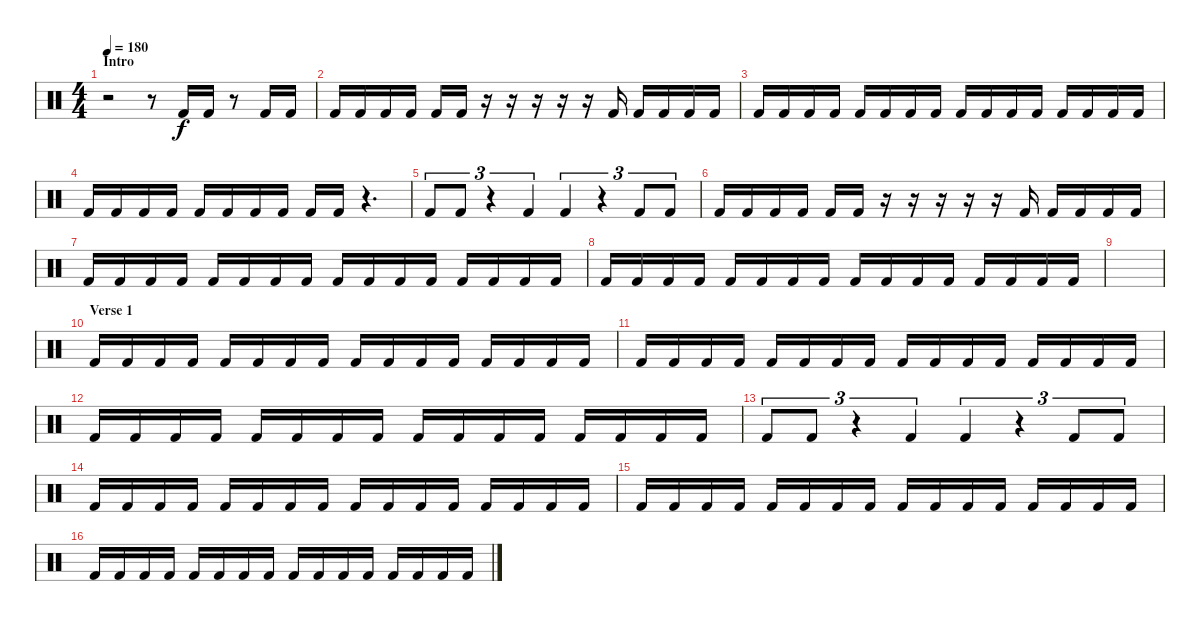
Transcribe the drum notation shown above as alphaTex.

\track "" {instrument percussion}
\staff {score}
\articulation defaults
\ts (4 4)
\section ("" "Intro")
\tempo 180
\clef neutral
\ks c
r.2{dy f} r.8 "Kick (hit) 2".16 "Kick (hit) 2".16 r.8 "Kick (hit) 2".16 "Kick (hit) 2".16 |
"Kick (hit) 2".16 "Kick (hit) 2".16 "Kick (hit) 2".16 "Kick (hit) 2".16 "Kick (hit) 2".16 "Kick (hit) 2".16 r.16 r.16 r.16 r.16 r.16 "Kick (hit) 2".16 "Kick (hit) 2".16 "Kick (hit) 2".16 "Kick (hit) 2".16 "Kick (hit) 2".16 |
"Kick (hit) 2".16 "Kick (hit) 2".16 "Kick (hit) 2".16 "Kick (hit) 2".16 "Kick (hit) 2".16 "Kick (hit) 2".16 "Kick (hit) 2".16 "Kick (hit) 2".16 "Kick (hit) 2".16 "Kick (hit) 2".16 "Kick (hit) 2".16 "Kick (hit) 2".16 "Kick (hit) 2".16 "Kick (hit) 2".16 "Kick (hit) 2".16 "Kick (hit) 2".16 |
"Kick (hit) 2".16 "Kick (hit) 2".16 "Kick (hit) 2".16 "Kick (hit) 2".16 "Kick (hit) 2".16 "Kick (hit) 2".16 "Kick (hit) 2".16 "Kick (hit) 2".16 "Kick (hit) 2".16 "Kick (hit) 2".16 r.4{d} |
"Kick (hit) 2".8{tu (3 2)} "Kick (hit) 2".8{tu (3 2)} r.4{tu (3 2)} "Kick (hit) 2".4{tu (3 2)} "Kick (hit) 2".4{tu (3 2)} r.4{tu (3 2)} "Kick (hit) 2".8{tu (3 2)} "Kick (hit) 2".8{tu (3 2)} |
"Kick (hit) 2".16 "Kick (hit) 2".16 "Kick (hit) 2".16 "Kick (hit) 2".16 "Kick (hit) 2".16 "Kick (hit) 2".16 r.16 r.16 r.16 r.16 r.16 "Kick (hit) 2".16 "Kick (hit) 2".16 "Kick (hit) 2".16 "Kick (hit) 2".16 "Kick (hit) 2".16 |
"Kick (hit) 2".16 "Kick (hit) 2".16 "Kick (hit) 2".16 "Kick (hit) 2".16 "Kick (hit) 2".16 "Kick (hit) 2".16 "Kick (hit) 2".16 "Kick (hit) 2".16 "Kick (hit) 2".16 "Kick (hit) 2".16 "Kick (hit) 2".16 "Kick (hit) 2".16 "Kick (hit) 2".16 "Kick (hit) 2".16 "Kick (hit) 2".16 "Kick (hit) 2".16 |
"Kick (hit) 2".16 "Kick (hit) 2".16 "Kick (hit) 2".16 "Kick (hit) 2".16 "Kick (hit) 2".16 "Kick (hit) 2".16 "Kick (hit) 2".16 "Kick (hit) 2".16 "Kick (hit) 2".16 "Kick (hit) 2".16 "Kick (hit) 2".16 "Kick (hit) 2".16 "Kick (hit) 2".16 "Kick (hit) 2".16 "Kick (hit) 2".16 "Kick (hit) 2".16 |
|
\section ("" "Verse 1")
"Kick (hit) 2".16 "Kick (hit) 2".16 "Kick (hit) 2".16 "Kick (hit) 2".16 "Kick (hit) 2".16 "Kick (hit) 2".16 "Kick (hit) 2".16 "Kick (hit) 2".16 "Kick (hit) 2".16 "Kick (hit) 2".16 "Kick (hit) 2".16 "Kick (hit) 2".16 "Kick (hit) 2".16 "Kick (hit) 2".16 "Kick (hit) 2".16 "Kick (hit) 2".16 |
"Kick (hit) 2".16 "Kick (hit) 2".16 "Kick (hit) 2".16 "Kick (hit) 2".16 "Kick (hit) 2".16 "Kick (hit) 2".16 "Kick (hit) 2".16 "Kick (hit) 2".16 "Kick (hit) 2".16 "Kick (hit) 2".16 "Kick (hit) 2".16 "Kick (hit) 2".16 "Kick (hit) 2".16 "Kick (hit) 2".16 "Kick (hit) 2".16 "Kick (hit) 2".16 |
"Kick (hit) 2".16 "Kick (hit) 2".16 "Kick (hit) 2".16 "Kick (hit) 2".16 "Kick (hit) 2".16 "Kick (hit) 2".16 "Kick (hit) 2".16 "Kick (hit) 2".16 "Kick (hit) 2".16 "Kick (hit) 2".16 "Kick (hit) 2".16 "Kick (hit) 2".16 "Kick (hit) 2".16 "Kick (hit) 2".16 "Kick (hit) 2".16 "Kick (hit) 2".16 |
"Kick (hit) 2".8{tu (3 2)} "Kick (hit) 2".8{tu (3 2)} r.4{tu (3 2)} "Kick (hit) 2".4{tu (3 2)} "Kick (hit) 2".4{tu (3 2)} r.4{tu (3 2)} "Kick (hit) 2".8{tu (3 2)} "Kick (hit) 2".8{tu (3 2)} |
"Kick (hit) 2".16 "Kick (hit) 2".16 "Kick (hit) 2".16 "Kick (hit) 2".16 "Kick (hit) 2".16 "Kick (hit) 2".16 "Kick (hit) 2".16 "Kick (hit) 2".16 "Kick (hit) 2".16 "Kick (hit) 2".16 "Kick (hit) 2".16 "Kick (hit) 2".16 "Kick (hit) 2".16 "Kick (hit) 2".16 "Kick (hit) 2".16 "Kick (hit) 2".16 |
"Kick (hit) 2".16 "Kick (hit) 2".16 "Kick (hit) 2".16 "Kick (hit) 2".16 "Kick (hit) 2".16 "Kick (hit) 2".16 "Kick (hit) 2".16 "Kick (hit) 2".16 "Kick (hit) 2".16 "Kick (hit) 2".16 "Kick (hit) 2".16 "Kick (hit) 2".16 "Kick (hit) 2".16 "Kick (hit) 2".16 "Kick (hit) 2".16 "Kick (hit) 2".16 |
"Kick (hit) 2".16 "Kick (hit) 2".16 "Kick (hit) 2".16 "Kick (hit) 2".16 "Kick (hit) 2".16 "Kick (hit) 2".16 "Kick (hit) 2".16 "Kick (hit) 2".16 "Kick (hit) 2".16 "Kick (hit) 2".16 "Kick (hit) 2".16 "Kick (hit) 2".16 "Kick (hit) 2".16 "Kick (hit) 2".16 "Kick (hit) 2".16 "Kick (hit) 2".16
